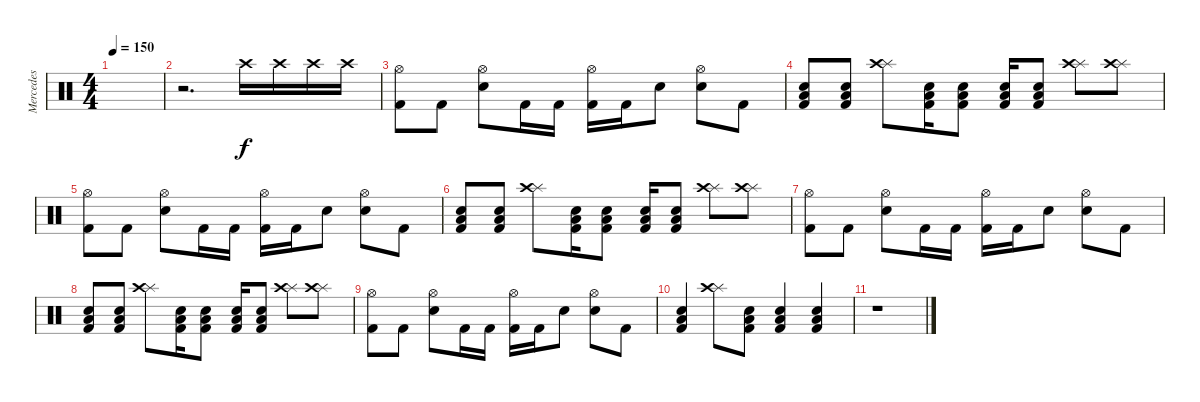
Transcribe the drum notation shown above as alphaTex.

\track ("Mercedes" "Mercedes") {instrument percussion}
\staff {score}
\articulation defaults
\ts (4 4)
\tempo 150
\clef neutral
\ks c
|
r.2{d} "Crash high (hit)".16 "Crash high (hit)".16 "Crash high (hit)".16 "Crash high (hit)".16 |
("Hi-Hat (open)" "Kick (hit) 2").8 "Kick (hit) 2".8 ("Hi-Hat (open)" "Snare (hit) 2").8 "Kick (hit) 2".16 "Kick (hit) 2".16 ("Hi-Hat (open)" "Kick (hit) 2").16 "Kick (hit) 2".16 "Snare (hit) 2".8 ("Hi-Hat (open)" "Snare (hit) 2").8 "Kick (hit) 2".8 |
("Low Tom (hit)" "Snare (hit) 2" "Kick (hit) 2").8 ("Low Tom (hit)" "Snare (hit) 2" "Kick (hit) 2").8 ("Splash (hit)" "Crash high (hit)").8 ("Low Tom (hit)" "Snare (hit) 2" "Kick (hit) 2").16 ("Low Tom (hit)" "Snare (hit) 2" "Kick (hit) 2").8 ("Low Tom (hit)" "Snare (hit) 2" "Kick (hit) 2").16 ("Low Tom (hit)" "Snare (hit) 2" "Kick (hit) 2").8 ("Splash (hit)" "Crash high (hit)").8 ("Splash (hit)" "Crash high (hit)").8 |
("Hi-Hat (open)" "Kick (hit) 2").8 "Kick (hit) 2".8 ("Hi-Hat (open)" "Snare (hit) 2").8 "Kick (hit) 2".16 "Kick (hit) 2".16 ("Hi-Hat (open)" "Kick (hit) 2").16 "Kick (hit) 2".16 "Snare (hit) 2".8 ("Hi-Hat (open)" "Snare (hit) 2").8 "Kick (hit) 2".8 |
("Low Tom (hit)" "Snare (hit) 2" "Kick (hit) 2").8 ("Low Tom (hit)" "Snare (hit) 2" "Kick (hit) 2").8 ("Splash (hit)" "Crash high (hit)").8 ("Low Tom (hit)" "Snare (hit) 2" "Kick (hit) 2").16 ("Low Tom (hit)" "Snare (hit) 2" "Kick (hit) 2").8 ("Low Tom (hit)" "Snare (hit) 2" "Kick (hit) 2").16 ("Low Tom (hit)" "Snare (hit) 2" "Kick (hit) 2").8 ("Splash (hit)" "Crash high (hit)").8 ("Splash (hit)" "Crash high (hit)").8 |
("Hi-Hat (open)" "Kick (hit) 2").8 "Kick (hit) 2".8 ("Hi-Hat (open)" "Snare (hit) 2").8 "Kick (hit) 2".16 "Kick (hit) 2".16 ("Hi-Hat (open)" "Kick (hit) 2").16 "Kick (hit) 2".16 "Snare (hit) 2".8 ("Hi-Hat (open)" "Snare (hit) 2").8 "Kick (hit) 2".8 |
("Low Tom (hit)" "Snare (hit) 2" "Kick (hit) 2").8 ("Low Tom (hit)" "Snare (hit) 2" "Kick (hit) 2").8 ("Splash (hit)" "Crash high (hit)").8 ("Low Tom (hit)" "Snare (hit) 2" "Kick (hit) 2").16 ("Low Tom (hit)" "Snare (hit) 2" "Kick (hit) 2").8 ("Low Tom (hit)" "Snare (hit) 2" "Kick (hit) 2").16 ("Low Tom (hit)" "Snare (hit) 2" "Kick (hit) 2").8 ("Splash (hit)" "Crash high (hit)").8 ("Splash (hit)" "Crash high (hit)").8 |
("Hi-Hat (open)" "Kick (hit) 2").8 "Kick (hit) 2".8 ("Hi-Hat (open)" "Snare (hit) 2").8 "Kick (hit) 2".16 "Kick (hit) 2".16 ("Hi-Hat (open)" "Kick (hit) 2").16 "Kick (hit) 2".16 "Snare (hit) 2".8 ("Hi-Hat (open)" "Snare (hit) 2").8 "Kick (hit) 2".8 |
("Low Tom (hit)" "Snare (hit) 2" "Kick (hit) 2").4 ("Splash (hit)" "Crash high (hit)").8 ("Low Tom (hit)" "Snare (hit) 2" "Kick (hit) 2").8 ("Low Tom (hit)" "Snare (hit) 2" "Kick (hit) 2").4 ("Low Tom (hit)" "Snare (hit) 2" "Kick (hit) 2").4 |
r.1
